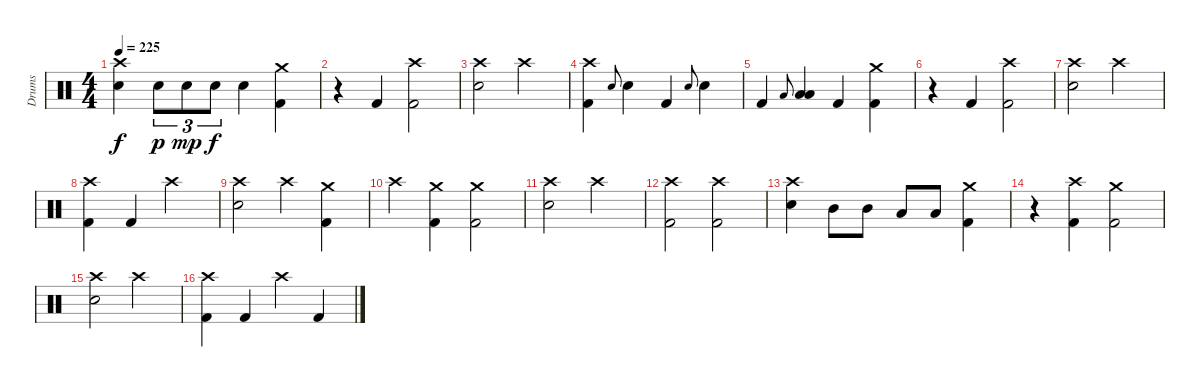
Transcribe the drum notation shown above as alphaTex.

\track ("Drums" "Drums") {instrument percussion}
\staff {score}
\articulation defaults
\ts (4 4)
\tempo 225
\clef neutral
\ks c
("Crash high (hit)" "Electric Snare (hit)").4{dy f} "Electric Snare (hit)".8{tu (3 2) dy p} "Electric Snare (hit)".8{tu (3 2) dy mp} "Electric Snare (hit)".8{tu (3 2) dy f} "Electric Snare (hit)".4 ("Kick (hit) 2" "Crash medium (hit)").4 |
r.4 "Kick (hit) 2".4 ("Crash high (hit)" "Kick (hit) 2").2 |
("Electric Snare (hit)" "Crash high (hit)").2 "Crash high (hit)".2 |
("Kick (hit) 2" "Crash high (hit)").4 "Electric Snare (hit)".8{gr onbeat} "Electric Snare (hit)".4 "Kick (hit) 2".4 "Electric Snare (hit)".8{gr onbeat} "Electric Snare (hit)".4 |
"Kick (hit) 2".4 "Low Floor Tom (hit)".8{gr onbeat} ("Low Tom (hit)" "Low Floor Tom (hit)").4 "Kick (hit) 2".4 ("Kick (hit) 2" "Crash medium (hit)").4 |
r.4 "Kick (hit) 2".4 ("Kick (hit) 2" "Crash high (hit)").2 |
("Electric Snare (hit)" "Crash high (hit)").2 "Crash high (hit)".2 |
("Crash high (hit)" "Kick (hit) 2").4 "Kick (hit) 2".4 "Crash high (hit)".2 |
("Electric Snare (hit)" "Crash high (hit)").2 "Crash high (hit)".4 ("Kick (hit) 2" "Crash medium (hit)").4 |
"Crash high (hit)".4 ("Kick (hit) 2" "Crash medium (hit)").4 ("Kick (hit) 2" "Crash medium (hit)").2 |
("Electric Snare (hit)" "Crash high (hit)").2 "Crash high (hit)".2 |
("Crash high (hit)" "Kick (hit) 2").2 ("Kick (hit) 2" "Crash high (hit)").2 |
("Crash high (hit)" "Electric Snare (hit)").4 "Mid Tom (hit)".8 "Mid Tom (hit)".8 "Low Tom (hit)".8 "Low Tom (hit)".8 ("Crash medium (hit)" "Kick (hit) 2").4 |
r.4 ("Kick (hit) 2" "Crash high (hit)").4 ("Kick (hit) 2" "Crash medium (hit)").2 |
("Crash high (hit)" "Electric Snare (hit)").2 "Crash high (hit)".2 |
("Crash high (hit)" "Kick (hit) 2").4 "Kick (hit) 2".4 "Crash high (hit)".4 "Kick (hit) 2".4
